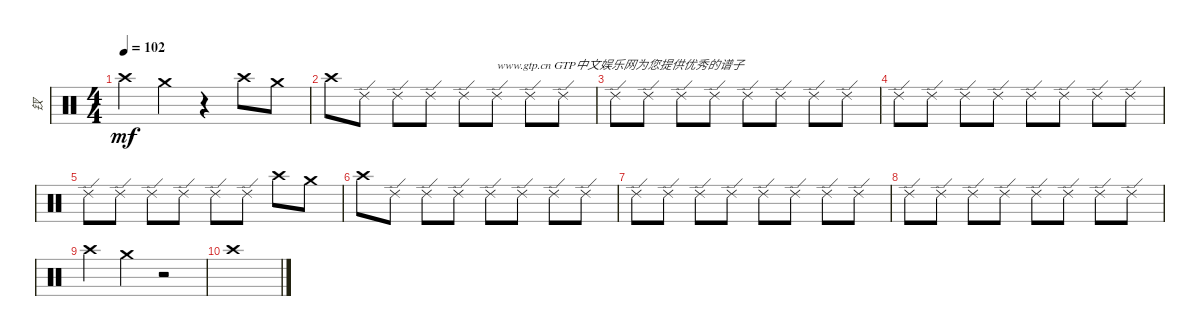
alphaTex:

\track ("钗" "钗") {instrument percussion}
\staff {score}
\articulation defaults
\ts (4 4)
\tempo 102
\clef neutral
\ks c "Crash high (hit)".4{dy mf} "Crash medium (hit)".4
r.4 "Crash high (hit)".8 "Crash medium (hit)".8 |
"Crash high (hit)".8 "Ride (edge) 2".8 "Ride (edge) 2".8 "Ride (edge) 2".8 "Ride (edge) 2".8 "Ride (edge) 2".8{txt "www.gtp.cn GTP中文娱乐网为您提供优秀的谱子"} "Ride (edge) 2".8 "Ride (edge) 2".8 |
"Ride (edge) 2".8 "Ride (edge) 2".8 "Ride (edge) 2".8 "Ride (edge) 2".8 "Ride (edge) 2".8 "Ride (edge) 2".8 "Ride (edge) 2".8 "Ride (edge) 2".8 |
"Ride (edge) 2".8 "Ride (edge) 2".8 "Ride (edge) 2".8 "Ride (edge) 2".8 "Ride (edge) 2".8 "Ride (edge) 2".8 "Ride (edge) 2".8 "Ride (edge) 2".8 |
"Ride (edge) 2".8 "Ride (edge) 2".8 "Ride (edge) 2".8 "Ride (edge) 2".8 "Ride (edge) 2".8 "Ride (edge) 2".8 "Crash high (hit)".8 "Crash medium (hit)".8 |
"Crash high (hit)".8 "Ride (edge) 2".8 "Ride (edge) 2".8 "Ride (edge) 2".8 "Ride (edge) 2".8 "Ride (edge) 2".8 "Ride (edge) 2".8 "Ride (edge) 2".8 |
"Ride (edge) 2".8 "Ride (edge) 2".8 "Ride (edge) 2".8 "Ride (edge) 2".8 "Ride (edge) 2".8 "Ride (edge) 2".8 "Ride (edge) 2".8 "Ride (edge) 2".8 |
"Ride (edge) 2".8 "Ride (edge) 2".8 "Ride (edge) 2".8 "Ride (edge) 2".8 "Ride (edge) 2".8 "Ride (edge) 2".8 "Ride (edge) 2".8 "Ride (edge) 2".8 |
"Crash high (hit)".4 "Crash medium (hit)".4 r.2 |
"Crash high (hit)".1
